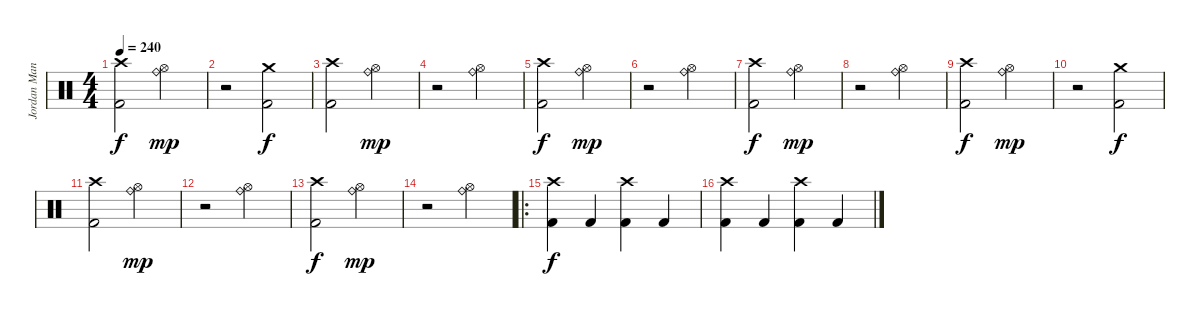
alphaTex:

\track ("Jordan Mancino" "Jordan Man") {instrument percussion}
\staff {score}
\articulation defaults
\ts (4 4)
\tempo 240
\clef neutral
\ks c
("Crash high (hit)" "Kick (hit) 2").2{dy f} ("Ride (bell)" "Hi-Hat (open)").2{dy mp} |
r.2 ("Crash medium (hit)" "Kick (hit) 2").2{dy f} |
("Crash high (hit)" "Kick (hit) 2").2 ("Ride (bell)" "Hi-Hat (open)").2{dy mp} |
r.2 ("Ride (bell)" "Hi-Hat (open)").2 |
("Crash high (hit)" "Kick (hit) 2").2{dy f} ("Ride (bell)" "Hi-Hat (open)").2{dy mp} |
r.2 ("Ride (bell)" "Hi-Hat (open)").2 |
("Crash high (hit)" "Kick (hit) 2").2{dy f} ("Ride (bell)" "Hi-Hat (open)").2{dy mp} |
r.2 ("Ride (bell)" "Hi-Hat (open)").2 |
("Crash high (hit)" "Kick (hit) 2").2{dy f} ("Ride (bell)" "Hi-Hat (open)").2{dy mp} |
r.2 ("Crash medium (hit)" "Kick (hit) 2").2{dy f} |
("Crash high (hit)" "Kick (hit) 2").2 ("Ride (bell)" "Hi-Hat (open)").2{dy mp} |
r.2 ("Ride (bell)" "Hi-Hat (open)").2 |
("Crash high (hit)" "Kick (hit) 2").2{dy f} ("Ride (bell)" "Hi-Hat (open)").2{dy mp} |
r.2 ("Ride (bell)" "Hi-Hat (open)").2 |
\ro
("Crash high (hit)" "Kick (hit) 2").4{dy f} "Kick (hit) 2".4 ("Crash high (hit)" "Kick (hit) 2").4 "Kick (hit) 2".4 |
("Crash high (hit)" "Kick (hit) 2").4 "Kick (hit) 2".4 ("Crash high (hit)" "Kick (hit) 2").4 "Kick (hit) 2".4
